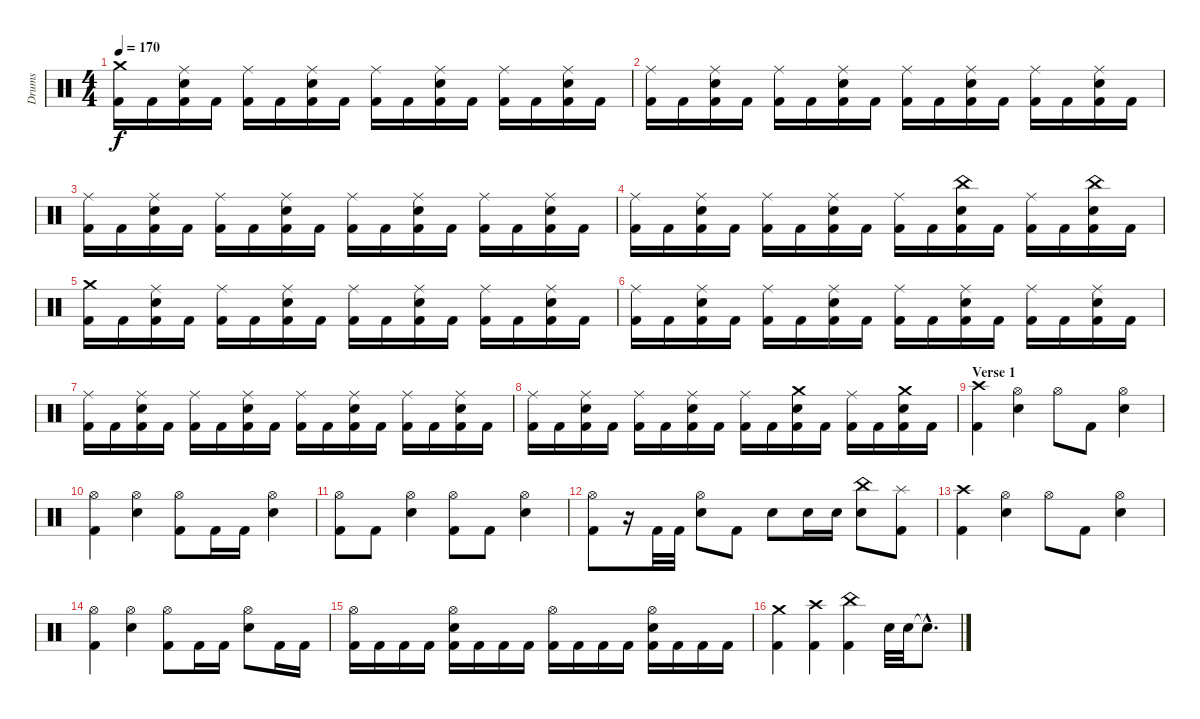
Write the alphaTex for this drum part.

\track ("Drums" "Drums") {instrument percussion}
\staff {score}
\articulation defaults
\ts (4 4)
\tempo 170
\clef neutral
\ks c
("Crash medium (hit)" "Kick (hit) 2").16{dy f} "Kick (hit) 2".16 ("Ride (middle)" "Electric Snare (hit)" "Kick (hit) 2").16 "Kick (hit) 2".16 ("Ride (middle)" "Kick (hit) 2").16 "Kick (hit) 2".16 ("Ride (middle)" "Electric Snare (hit)" "Kick (hit) 2").16 "Kick (hit) 2".16 ("Ride (middle)" "Kick (hit) 2").16 "Kick (hit) 2".16 ("Ride (middle)" "Electric Snare (hit)" "Kick (hit) 2").16 "Kick (hit) 2".16 ("Ride (middle)" "Kick (hit) 2").16 "Kick (hit) 2".16 ("Ride (middle)" "Electric Snare (hit)" "Kick (hit) 2").16 "Kick (hit) 2".16 |
("Ride (middle)" "Kick (hit) 2").16 "Kick (hit) 2".16 ("Ride (middle)" "Electric Snare (hit)" "Kick (hit) 2").16 "Kick (hit) 2".16 ("Ride (middle)" "Kick (hit) 2").16 "Kick (hit) 2".16 ("Ride (middle)" "Electric Snare (hit)" "Kick (hit) 2").16 "Kick (hit) 2".16 ("Ride (middle)" "Kick (hit) 2").16 "Kick (hit) 2".16 ("Ride (middle)" "Electric Snare (hit)" "Kick (hit) 2").16 "Kick (hit) 2".16 ("Ride (middle)" "Kick (hit) 2").16 "Kick (hit) 2".16 ("Ride (middle)" "Electric Snare (hit)" "Kick (hit) 2").16 "Kick (hit) 2".16 |
("Ride (middle)" "Kick (hit) 2").16 "Kick (hit) 2".16 ("Ride (middle)" "Electric Snare (hit)" "Kick (hit) 2").16 "Kick (hit) 2".16 ("Ride (middle)" "Kick (hit) 2").16 "Kick (hit) 2".16 ("Ride (middle)" "Electric Snare (hit)" "Kick (hit) 2").16 "Kick (hit) 2".16 ("Ride (middle)" "Kick (hit) 2").16 "Kick (hit) 2".16 ("Ride (middle)" "Electric Snare (hit)" "Kick (hit) 2").16 "Kick (hit) 2".16 ("Ride (middle)" "Kick (hit) 2").16 "Kick (hit) 2".16 ("Ride (middle)" "Electric Snare (hit)" "Kick (hit) 2").16 "Kick (hit) 2".16 |
("Ride (middle)" "Kick (hit) 2").16 "Kick (hit) 2".16 ("Ride (middle)" "Electric Snare (hit)" "Kick (hit) 2").16 "Kick (hit) 2".16 ("Ride (middle)" "Kick (hit) 2").16 "Kick (hit) 2".16 ("Ride (middle)" "Electric Snare (hit)" "Kick (hit) 2").16 "Kick (hit) 2".16 ("Ride (middle)" "Kick (hit) 2").16 "Kick (hit) 2".16 ("China (hit)" "Electric Snare (hit)" "Kick (hit) 2").16 "Kick (hit) 2".16 ("Ride (middle)" "Kick (hit) 2").16 "Kick (hit) 2".16 ("China (hit)" "Electric Snare (hit)" "Kick (hit) 2").16 "Kick (hit) 2".16 |
("Crash medium (hit)" "Kick (hit) 2").16 "Kick (hit) 2".16 ("Ride (middle)" "Electric Snare (hit)" "Kick (hit) 2").16 "Kick (hit) 2".16 ("Ride (middle)" "Kick (hit) 2").16 "Kick (hit) 2".16 ("Ride (middle)" "Electric Snare (hit)" "Kick (hit) 2").16 "Kick (hit) 2".16 ("Ride (middle)" "Kick (hit) 2").16 "Kick (hit) 2".16 ("Ride (middle)" "Electric Snare (hit)" "Kick (hit) 2").16 "Kick (hit) 2".16 ("Ride (middle)" "Kick (hit) 2").16 "Kick (hit) 2".16 ("Ride (middle)" "Electric Snare (hit)" "Kick (hit) 2").16 "Kick (hit) 2".16 |
("Ride (middle)" "Kick (hit) 2").16 "Kick (hit) 2".16 ("Ride (middle)" "Electric Snare (hit)" "Kick (hit) 2").16 "Kick (hit) 2".16 ("Ride (middle)" "Kick (hit) 2").16 "Kick (hit) 2".16 ("Ride (middle)" "Electric Snare (hit)" "Kick (hit) 2").16 "Kick (hit) 2".16 ("Ride (middle)" "Kick (hit) 2").16 "Kick (hit) 2".16 ("Ride (middle)" "Electric Snare (hit)" "Kick (hit) 2").16 "Kick (hit) 2".16 ("Ride (middle)" "Kick (hit) 2").16 "Kick (hit) 2".16 ("Ride (middle)" "Electric Snare (hit)" "Kick (hit) 2").16 "Kick (hit) 2".16 |
("Ride (middle)" "Kick (hit) 2").16 "Kick (hit) 2".16 ("Ride (middle)" "Electric Snare (hit)" "Kick (hit) 2").16 "Kick (hit) 2".16 ("Ride (middle)" "Kick (hit) 2").16 "Kick (hit) 2".16 ("Ride (middle)" "Electric Snare (hit)" "Kick (hit) 2").16 "Kick (hit) 2".16 ("Ride (middle)" "Kick (hit) 2").16 "Kick (hit) 2".16 ("Ride (middle)" "Electric Snare (hit)" "Kick (hit) 2").16 "Kick (hit) 2".16 ("Ride (middle)" "Kick (hit) 2").16 "Kick (hit) 2".16 ("Ride (middle)" "Electric Snare (hit)" "Kick (hit) 2").16 "Kick (hit) 2".16 |
("Ride (middle)" "Kick (hit) 2").16 "Kick (hit) 2".16 ("Ride (middle)" "Electric Snare (hit)" "Kick (hit) 2").16 "Kick (hit) 2".16 ("Ride (middle)" "Kick (hit) 2").16 "Kick (hit) 2".16 ("Ride (middle)" "Electric Snare (hit)" "Kick (hit) 2").16 "Kick (hit) 2".16 ("Ride (middle)" "Kick (hit) 2").16 "Kick (hit) 2".16 ("Crash medium (hit)" "Electric Snare (hit)" "Kick (hit) 2").16 "Kick (hit) 2".16 ("Ride (middle)" "Kick (hit) 2").16 "Kick (hit) 2".16 ("Crash medium (hit)" "Electric Snare (hit)" "Kick (hit) 2").16 "Kick (hit) 2".16 |
\section ("" "Verse 1")
("Crash high (hit)" "Kick (hit) 2").4 ("Hi-Hat (open)" "Electric Snare (hit)").4 "Hi-Hat (open)".8 "Kick (hit) 2".8 ("Hi-Hat (open)" "Electric Snare (hit)").4 |
("Hi-Hat (open)" "Kick (hit) 2").4 ("Hi-Hat (open)" "Electric Snare (hit)").4 ("Hi-Hat (open)" "Kick (hit) 2").8 "Kick (hit) 2".16 "Kick (hit) 2".16 ("Hi-Hat (open)" "Electric Snare (hit)").4 |
("Hi-Hat (open)" "Kick (hit) 2").8 "Kick (hit) 2".8 ("Hi-Hat (open)" "Electric Snare (hit)").4 ("Hi-Hat (open)" "Kick (hit) 2").8 "Kick (hit) 2".8 ("Hi-Hat (open)" "Electric Snare (hit)").4 |
("Hi-Hat (open)" "Kick (hit) 2").8 r.16 "Kick (hit) 2".32 "Kick (hit) 2".32 ("Hi-Hat (open)" "Electric Snare (hit)").8 "Kick (hit) 2".8 "Electric Snare (hit)".8 "Electric Snare (hit)".16 "Electric Snare (hit)".16 ("China (hit)" "Electric Snare (hit)").8 ("Splash (hit)" "Kick (hit) 2").8 |
("Crash high (hit)" "Kick (hit) 2").4 ("Hi-Hat (open)" "Electric Snare (hit)").4 "Hi-Hat (open)".8 "Kick (hit) 2".8 ("Hi-Hat (open)" "Electric Snare (hit)").4 |
("Hi-Hat (open)" "Kick (hit) 2").4 ("Hi-Hat (open)" "Electric Snare (hit)").4 ("Hi-Hat (open)" "Kick (hit) 2").8 "Kick (hit) 2".16 "Kick (hit) 2".16 ("Hi-Hat (open)" "Electric Snare (hit)").8 "Kick (hit) 2".16 "Kick (hit) 2".16 |
("Hi-Hat (open)" "Kick (hit) 2").16 "Kick (hit) 2".16 "Kick (hit) 2".16 "Kick (hit) 2".16 ("Hi-Hat (open)" "Electric Snare (hit)" "Kick (hit) 2").16 "Kick (hit) 2".16 "Kick (hit) 2".16 "Kick (hit) 2".16 ("Hi-Hat (open)" "Kick (hit) 2").16 "Kick (hit) 2".16 "Kick (hit) 2".16 "Kick (hit) 2".16 ("Hi-Hat (open)" "Electric Snare (hit)" "Kick (hit) 2").16 "Kick (hit) 2".16 "Kick (hit) 2".16 "Kick (hit) 2".16 |
("Crash medium (hit)" "Kick (hit) 2").4 ("Crash high (hit)" "Kick (hit) 2").4 ("China (hit)" "Kick (hit) 2").4 "Electric Snare (hit)".32 "Electric Snare (hit)".32 "Snare (hit)"{hac t}.8{d}
